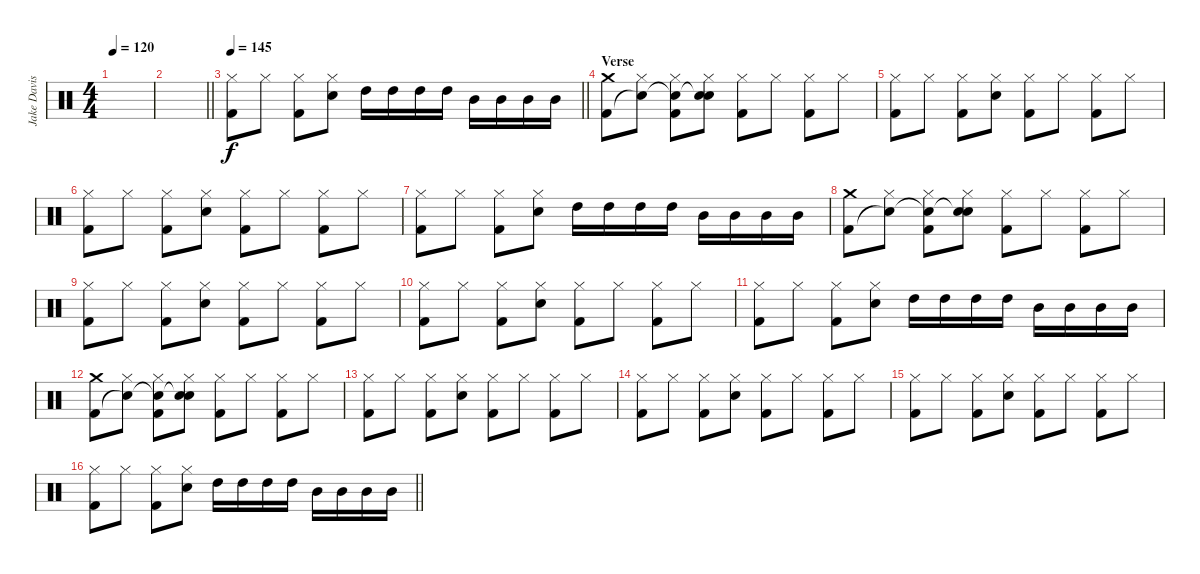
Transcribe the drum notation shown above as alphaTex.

\track ("Jake Davison (Drums)" "Jake Davis") {instrument percussion}
\staff {score}
\articulation defaults
\ts (4 4)
\tempo 120
\clef neutral
\ks c
|
\barLineRight lightlight
|
\tempo 145
\barLineRight lightlight
("Hi-Hat (closed)" "Kick (hit) 2").8 "Hi-Hat (closed)".8 ("Hi-Hat (closed)" "Kick (hit) 2").8 ("Hi-Hat (closed)" "Electric Snare (hit)").8 "High Tom (hit)".16 "High Tom (hit)".16 "High Tom (hit)".16 "High Tom (hit)".16 "Mid Tom (hit)".16 "Mid Tom (hit)".16 "Mid Tom (hit)".16 "Mid Tom (hit)".16 |
\section ("" "Verse")
("Crash medium (hit)" "Kick (hit) 2").8 ("Hi-Hat (closed)" "Snare (hit)"{t}).8 ("Hi-Hat (closed)" "Snare (hit)"{t} "Kick (hit) 2").8 ("Hi-Hat (closed)" "Snare (hit)"{t} "Electric Snare (hit)").8 ("Hi-Hat (closed)" "Kick (hit) 2").8 "Hi-Hat (closed)".8 ("Hi-Hat (closed)" "Kick (hit) 2").8 "Hi-Hat (closed)".8 |
("Hi-Hat (closed)" "Kick (hit) 2").8 "Hi-Hat (closed)".8 ("Hi-Hat (closed)" "Kick (hit) 2").8 ("Hi-Hat (closed)" "Electric Snare (hit)").8 ("Hi-Hat (closed)" "Kick (hit) 2").8 "Hi-Hat (closed)".8 ("Hi-Hat (closed)" "Kick (hit) 2").8 "Hi-Hat (closed)".8 |
("Hi-Hat (closed)" "Kick (hit) 2").8 "Hi-Hat (closed)".8 ("Hi-Hat (closed)" "Kick (hit) 2").8 ("Hi-Hat (closed)" "Electric Snare (hit)").8 ("Hi-Hat (closed)" "Kick (hit) 2").8 "Hi-Hat (closed)".8 ("Hi-Hat (closed)" "Kick (hit) 2").8 "Hi-Hat (closed)".8 |
("Hi-Hat (closed)" "Kick (hit) 2").8 "Hi-Hat (closed)".8 ("Hi-Hat (closed)" "Kick (hit) 2").8 ("Hi-Hat (closed)" "Electric Snare (hit)").8 "High Tom (hit)".16 "High Tom (hit)".16 "High Tom (hit)".16 "High Tom (hit)".16 "Mid Tom (hit)".16 "Mid Tom (hit)".16 "Mid Tom (hit)".16 "Mid Tom (hit)".16 |
("Crash medium (hit)" "Kick (hit) 2").8 ("Hi-Hat (closed)" "Snare (hit)"{t}).8 ("Hi-Hat (closed)" "Snare (hit)"{t} "Kick (hit) 2").8 ("Hi-Hat (closed)" "Snare (hit)"{t} "Electric Snare (hit)").8 ("Hi-Hat (closed)" "Kick (hit) 2").8 "Hi-Hat (closed)".8 ("Hi-Hat (closed)" "Kick (hit) 2").8 "Hi-Hat (closed)".8 |
("Hi-Hat (closed)" "Kick (hit) 2").8 "Hi-Hat (closed)".8 ("Hi-Hat (closed)" "Kick (hit) 2").8 ("Hi-Hat (closed)" "Electric Snare (hit)").8 ("Hi-Hat (closed)" "Kick (hit) 2").8 "Hi-Hat (closed)".8 ("Hi-Hat (closed)" "Kick (hit) 2").8 "Hi-Hat (closed)".8 |
("Hi-Hat (closed)" "Kick (hit) 2").8 "Hi-Hat (closed)".8 ("Hi-Hat (closed)" "Kick (hit) 2").8 ("Hi-Hat (closed)" "Electric Snare (hit)").8 ("Hi-Hat (closed)" "Kick (hit) 2").8 "Hi-Hat (closed)".8 ("Hi-Hat (closed)" "Kick (hit) 2").8 "Hi-Hat (closed)".8 |
("Hi-Hat (closed)" "Kick (hit) 2").8 "Hi-Hat (closed)".8 ("Hi-Hat (closed)" "Kick (hit) 2").8 ("Hi-Hat (closed)" "Electric Snare (hit)").8 "High Tom (hit)".16 "High Tom (hit)".16 "High Tom (hit)".16 "High Tom (hit)".16 "Mid Tom (hit)".16 "Mid Tom (hit)".16 "Mid Tom (hit)".16 "Mid Tom (hit)".16 |
("Crash medium (hit)" "Kick (hit) 2").8 ("Hi-Hat (closed)" "Snare (hit)"{t}).8 ("Hi-Hat (closed)" "Snare (hit)"{t} "Kick (hit) 2").8 ("Hi-Hat (closed)" "Snare (hit)"{t} "Electric Snare (hit)").8 ("Hi-Hat (closed)" "Kick (hit) 2").8 "Hi-Hat (closed)".8 ("Hi-Hat (closed)" "Kick (hit) 2").8 "Hi-Hat (closed)".8 |
("Hi-Hat (closed)" "Kick (hit) 2").8 "Hi-Hat (closed)".8 ("Hi-Hat (closed)" "Kick (hit) 2").8 ("Hi-Hat (closed)" "Electric Snare (hit)").8 ("Hi-Hat (closed)" "Kick (hit) 2").8 "Hi-Hat (closed)".8 ("Hi-Hat (closed)" "Kick (hit) 2").8 "Hi-Hat (closed)".8 |
("Hi-Hat (closed)" "Kick (hit) 2").8 "Hi-Hat (closed)".8 ("Hi-Hat (closed)" "Kick (hit) 2").8 ("Hi-Hat (closed)" "Electric Snare (hit)").8 ("Hi-Hat (closed)" "Kick (hit) 2").8 "Hi-Hat (closed)".8 ("Hi-Hat (closed)" "Kick (hit) 2").8 "Hi-Hat (closed)".8 |
("Hi-Hat (closed)" "Kick (hit) 2").8 "Hi-Hat (closed)".8 ("Hi-Hat (closed)" "Kick (hit) 2").8 ("Hi-Hat (closed)" "Electric Snare (hit)").8 ("Hi-Hat (closed)" "Kick (hit) 2").8 "Hi-Hat (closed)".8 ("Hi-Hat (closed)" "Kick (hit) 2").8 "Hi-Hat (closed)".8 |
\barLineRight lightlight
("Hi-Hat (closed)" "Kick (hit) 2").8 "Hi-Hat (closed)".8 ("Hi-Hat (closed)" "Kick (hit) 2").8 ("Hi-Hat (closed)" "Electric Snare (hit)").8 "High Tom (hit)".16 "High Tom (hit)".16 "High Tom (hit)".16 "High Tom (hit)".16 "Mid Tom (hit)".16 "Mid Tom (hit)".16 "Mid Tom (hit)".16 "Mid Tom (hit)".16
